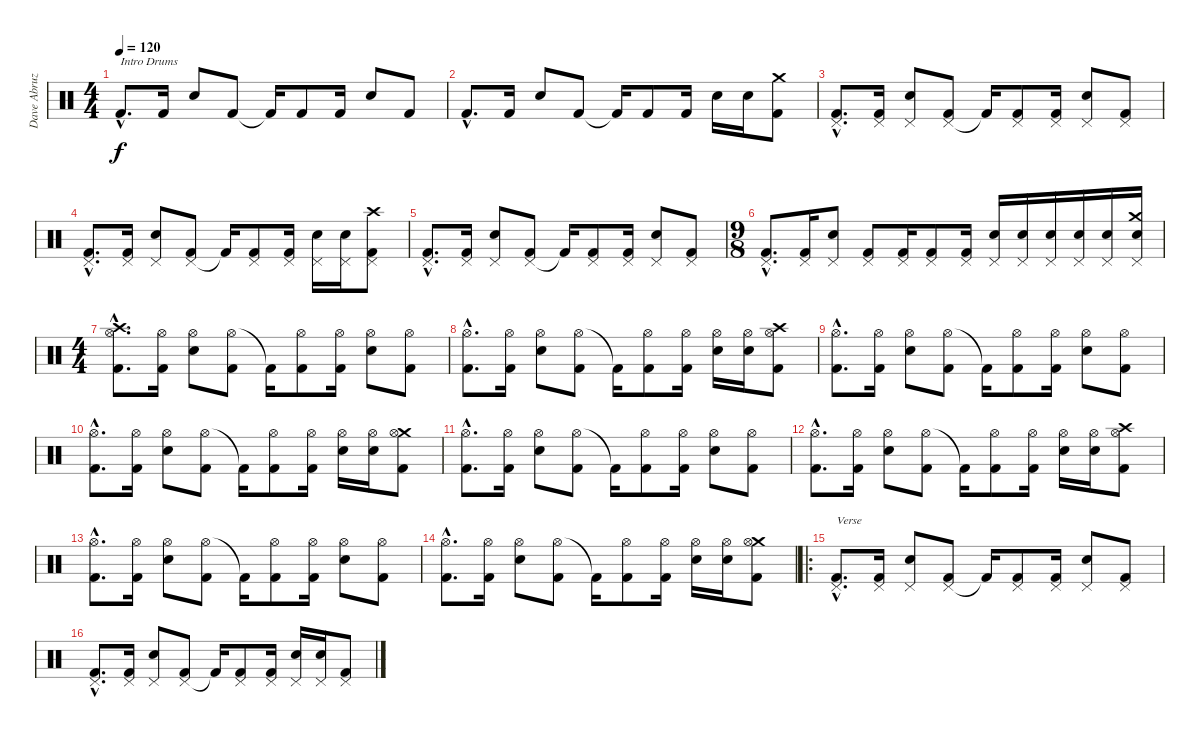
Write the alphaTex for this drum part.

\track ("Dave Abruzzesse" "Dave Abruz") {instrument percussion}
\staff {score}
\articulation defaults
\ts (4 4)
\tempo 120
\clef neutral
\ks c "Kick (hit) 2"{hac}.8{d txt "Intro Drums" dy f} "Kick (hit) 2".16 "Snare (hit) 2".8 "Kick (hit) 2".8 "Kick (hit) 2"{t}.16 "Kick (hit) 2".8 "Kick (hit) 2".16 "Snare (hit) 2".8 "Kick (hit) 2".8
|
"Kick (hit) 2"{hac}.8{d} "Kick (hit) 2".16 "Snare (hit) 2".8 "Kick (hit) 2".8 "Kick (hit) 2"{t}.16 "Kick (hit) 2".8 "Kick (hit) 2".16 "Snare (hit) 2".16 "Snare (hit) 2".16 ("Crash medium (hit)" "Kick (hit) 2").8 |
("Pedal Hi-Hat (hit)"{hac} "Kick (hit) 2"{hac}).8{d} ("Pedal Hi-Hat (hit)" "Kick (hit) 2").16 ("Pedal Hi-Hat (hit)" "Snare (hit) 2").8 ("Pedal Hi-Hat (hit)" "Kick (hit) 2").8 "Kick (hit) 2"{t}.16 ("Pedal Hi-Hat (hit)" "Kick (hit) 2").8 ("Pedal Hi-Hat (hit)" "Kick (hit) 2").16 ("Pedal Hi-Hat (hit)" "Snare (hit) 2").8 ("Pedal Hi-Hat (hit)" "Kick (hit) 2").8 |
("Pedal Hi-Hat (hit)"{hac} "Kick (hit) 2"{hac}).8{d} ("Pedal Hi-Hat (hit)" "Kick (hit) 2").16 ("Pedal Hi-Hat (hit)" "Snare (hit) 2").8 ("Pedal Hi-Hat (hit)" "Kick (hit) 2").8 "Kick (hit) 2"{t}.16 ("Pedal Hi-Hat (hit)" "Kick (hit) 2").8 ("Pedal Hi-Hat (hit)" "Kick (hit) 2").16 ("Pedal Hi-Hat (hit)" "Snare (hit) 2").16 ("Pedal Hi-Hat (hit)" "Snare (hit) 2").16 ("Crash high (hit)" "Pedal Hi-Hat (hit)" "Kick (hit) 2").8 |
("Pedal Hi-Hat (hit)"{hac} "Kick (hit) 2"{hac}).8{d} ("Pedal Hi-Hat (hit)" "Kick (hit) 2").16 ("Pedal Hi-Hat (hit)" "Snare (hit) 2").8 ("Pedal Hi-Hat (hit)" "Kick (hit) 2").8 "Kick (hit) 2"{t}.16 ("Pedal Hi-Hat (hit)" "Kick (hit) 2").8 ("Pedal Hi-Hat (hit)" "Kick (hit) 2").16 ("Pedal Hi-Hat (hit)" "Snare (hit) 2").8 ("Pedal Hi-Hat (hit)" "Kick (hit) 2").8 |
\ts (9 8)
("Pedal Hi-Hat (hit)"{hac} "Kick (hit) 2"{hac}).8{d} ("Pedal Hi-Hat (hit)" "Kick (hit) 2").16 ("Pedal Hi-Hat (hit)" "Snare (hit) 2").8 ("Pedal Hi-Hat (hit)" "Kick (hit) 2").8 ("Pedal Hi-Hat (hit)" "Kick (hit) 2").16 ("Pedal Hi-Hat (hit)" "Kick (hit) 2").8 ("Pedal Hi-Hat (hit)" "Kick (hit) 2").16 ("Pedal Hi-Hat (hit)" "Snare (hit) 2").16 ("Pedal Hi-Hat (hit)" "Snare (hit) 2").16 ("Pedal Hi-Hat (hit)" "Snare (hit) 2").16 ("Pedal Hi-Hat (hit)" "Snare (hit) 2").16 ("Pedal Hi-Hat (hit)" "Snare (hit) 2").16 ("Crash medium (hit)" "Pedal Hi-Hat (hit)" "Snare (hit) 2").16 |
\ts (4 4)
("Crash high (hit)"{hac} "Hi-Hat (open)"{hac} "Kick (hit) 2"{hac}).8{d} ("Hi-Hat (open)" "Kick (hit) 2").16 ("Hi-Hat (open)" "Snare (hit) 2").8 ("Hi-Hat (open)" "Kick (hit) 2").8 "Kick (hit) 2"{t}.16 ("Hi-Hat (open)" "Kick (hit) 2").8 ("Hi-Hat (open)" "Kick (hit) 2").16 ("Hi-Hat (open)" "Snare (hit) 2").8 ("Hi-Hat (open)" "Kick (hit) 2").8 |
("Hi-Hat (open)"{hac} "Kick (hit) 2"{hac}).8{d} ("Hi-Hat (open)" "Kick (hit) 2").16 ("Hi-Hat (open)" "Snare (hit) 2").8 ("Hi-Hat (open)" "Kick (hit) 2").8 "Kick (hit) 2"{t}.16 ("Hi-Hat (open)" "Kick (hit) 2").8 ("Hi-Hat (open)" "Kick (hit) 2").16 ("Hi-Hat (open)" "Snare (hit) 2").16 ("Hi-Hat (open)" "Snare (hit) 2").16 ("Crash high (hit)" "Hi-Hat (open)" "Kick (hit) 2").8 |
("Hi-Hat (open)"{hac} "Kick (hit) 2"{hac}).8{d} ("Hi-Hat (open)" "Kick (hit) 2").16 ("Hi-Hat (open)" "Snare (hit) 2").8 ("Hi-Hat (open)" "Kick (hit) 2").8 "Kick (hit) 2"{t}.16 ("Hi-Hat (open)" "Kick (hit) 2").8 ("Hi-Hat (open)" "Kick (hit) 2").16 ("Hi-Hat (open)" "Snare (hit) 2").8 ("Hi-Hat (open)" "Kick (hit) 2").8 |
("Hi-Hat (open)"{hac} "Kick (hit) 2"{hac}).8{d} ("Hi-Hat (open)" "Kick (hit) 2").16 ("Hi-Hat (open)" "Snare (hit) 2").8 ("Hi-Hat (open)" "Kick (hit) 2").8 "Kick (hit) 2"{t}.16 ("Hi-Hat (open)" "Kick (hit) 2").8 ("Hi-Hat (open)" "Kick (hit) 2").16 ("Hi-Hat (open)" "Snare (hit) 2").16 ("Hi-Hat (open)" "Snare (hit) 2").16 ("Crash medium (hit)" "Hi-Hat (open)" "Kick (hit) 2").8 |
("Hi-Hat (open)"{hac} "Kick (hit) 2"{hac}).8{d} ("Hi-Hat (open)" "Kick (hit) 2").16 ("Hi-Hat (open)" "Snare (hit) 2").8 ("Hi-Hat (open)" "Kick (hit) 2").8 "Kick (hit) 2"{t}.16 ("Hi-Hat (open)" "Kick (hit) 2").8 ("Hi-Hat (open)" "Kick (hit) 2").16 ("Hi-Hat (open)" "Snare (hit) 2").8 ("Hi-Hat (open)" "Kick (hit) 2").8 |
("Hi-Hat (open)"{hac} "Kick (hit) 2"{hac}).8{d} ("Hi-Hat (open)" "Kick (hit) 2").16 ("Hi-Hat (open)" "Snare (hit) 2").8 ("Hi-Hat (open)" "Kick (hit) 2").8 "Kick (hit) 2"{t}.16 ("Hi-Hat (open)" "Kick (hit) 2").8 ("Hi-Hat (open)" "Kick (hit) 2").16 ("Hi-Hat (open)" "Snare (hit) 2").16 ("Hi-Hat (open)" "Snare (hit) 2").16 ("Crash high (hit)" "Hi-Hat (open)" "Kick (hit) 2").8 |
("Hi-Hat (open)"{hac} "Kick (hit) 2"{hac}).8{d} ("Hi-Hat (open)" "Kick (hit) 2").16 ("Hi-Hat (open)" "Snare (hit) 2").8 ("Hi-Hat (open)" "Kick (hit) 2").8 "Kick (hit) 2"{t}.16 ("Hi-Hat (open)" "Kick (hit) 2").8 ("Hi-Hat (open)" "Kick (hit) 2").16 ("Hi-Hat (open)" "Snare (hit) 2").8 ("Hi-Hat (open)" "Kick (hit) 2").8 |
("Hi-Hat (open)"{hac} "Kick (hit) 2"{hac}).8{d} ("Hi-Hat (open)" "Kick (hit) 2").16 ("Hi-Hat (open)" "Snare (hit) 2").8 ("Hi-Hat (open)" "Kick (hit) 2").8 "Kick (hit) 2"{t}.16 ("Hi-Hat (open)" "Kick (hit) 2").8 ("Hi-Hat (open)" "Kick (hit) 2").16 ("Hi-Hat (open)" "Snare (hit) 2").16 ("Hi-Hat (open)" "Snare (hit) 2").16 ("Crash medium (hit)" "Hi-Hat (open)" "Kick (hit) 2").8 |
\ro
("Pedal Hi-Hat (hit)"{hac} "Kick (hit) 2"{hac}).8{d txt "Verse"} ("Pedal Hi-Hat (hit)" "Kick (hit) 2").16 ("Pedal Hi-Hat (hit)" "Snare (hit) 2").8 ("Pedal Hi-Hat (hit)" "Kick (hit) 2").8 "Kick (hit) 2"{t}.16 ("Pedal Hi-Hat (hit)" "Kick (hit) 2").8 ("Pedal Hi-Hat (hit)" "Kick (hit) 2").16 ("Pedal Hi-Hat (hit)" "Snare (hit) 2").8 ("Pedal Hi-Hat (hit)" "Kick (hit) 2").8 |
("Pedal Hi-Hat (hit)"{hac} "Kick (hit) 2"{hac}).8{d} ("Pedal Hi-Hat (hit)" "Kick (hit) 2").16 ("Pedal Hi-Hat (hit)" "Snare (hit) 2").8 ("Pedal Hi-Hat (hit)" "Kick (hit) 2").8 "Kick (hit) 2"{t}.16 ("Pedal Hi-Hat (hit)" "Kick (hit) 2").8 ("Pedal Hi-Hat (hit)" "Kick (hit) 2").16 ("Pedal Hi-Hat (hit)" "Snare (hit) 2").16 ("Pedal Hi-Hat (hit)" "Snare (hit) 2").16 ("Pedal Hi-Hat (hit)" "Kick (hit) 2").8
